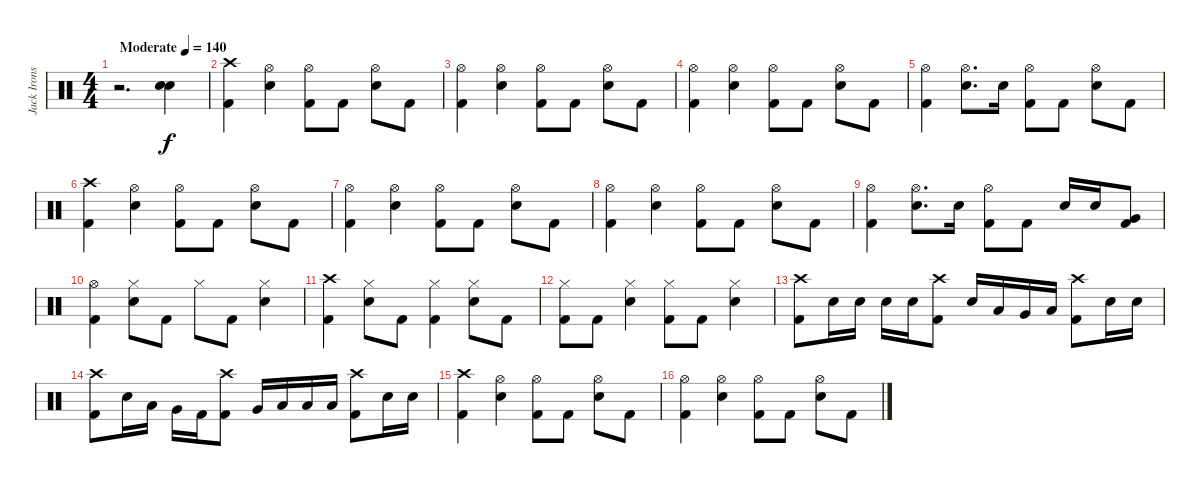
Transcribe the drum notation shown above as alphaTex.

\track ("Jack Irons" "Jack Irons") {instrument percussion}
\staff {score}
\articulation defaults
\ts (4 4)
\tempo (140 "Moderate")
\clef neutral
\ks c
r.2{d dy f} ("Electric Snare (hit)" "Electric Snare (hit)").4 |
("Crash high (hit)" "Kick (hit) 2").4 ("Hi-Hat (open)" "Electric Snare (hit)").4 ("Hi-Hat (open)" "Kick (hit) 2").8 "Kick (hit) 2".8 ("Hi-Hat (open)" "Electric Snare (hit)").8 "Kick (hit) 2".8 |
("Hi-Hat (open)" "Kick (hit) 2").4 ("Hi-Hat (open)" "Electric Snare (hit)").4 ("Hi-Hat (open)" "Kick (hit) 2").8 "Kick (hit) 2".8 ("Hi-Hat (open)" "Electric Snare (hit)").8 "Kick (hit) 2".8 |
("Hi-Hat (open)" "Kick (hit) 2").4 ("Hi-Hat (open)" "Electric Snare (hit)").4 ("Hi-Hat (open)" "Kick (hit) 2").8 "Kick (hit) 2".8 ("Hi-Hat (open)" "Electric Snare (hit)").8 "Kick (hit) 2".8 |
("Hi-Hat (open)" "Kick (hit) 2").4 ("Hi-Hat (open)" "Electric Snare (hit)").8{d} "Electric Snare (hit)".16 ("Hi-Hat (open)" "Kick (hit) 2").8 "Kick (hit) 2".8 ("Hi-Hat (open)" "Electric Snare (hit)").8 "Kick (hit) 2".8 |
("Crash high (hit)" "Kick (hit) 2").4 ("Hi-Hat (open)" "Electric Snare (hit)").4 ("Hi-Hat (open)" "Kick (hit) 2").8 "Kick (hit) 2".8 ("Hi-Hat (open)" "Electric Snare (hit)").8 "Kick (hit) 2".8 |
("Hi-Hat (open)" "Kick (hit) 2").4 ("Hi-Hat (open)" "Electric Snare (hit)").4 ("Hi-Hat (open)" "Kick (hit) 2").8 "Kick (hit) 2".8 ("Hi-Hat (open)" "Electric Snare (hit)").8 "Kick (hit) 2".8 |
("Hi-Hat (open)" "Kick (hit) 2").4 ("Hi-Hat (open)" "Electric Snare (hit)").4 ("Hi-Hat (open)" "Kick (hit) 2").8 "Kick (hit) 2".8 ("Hi-Hat (open)" "Electric Snare (hit)").8 "Kick (hit) 2".8 |
("Hi-Hat (open)" "Kick (hit) 2").4 ("Hi-Hat (open)" "Electric Snare (hit)").8{d} "Electric Snare (hit)".16 ("Hi-Hat (open)" "Kick (hit) 2").8 "Kick (hit) 2".8 "Electric Snare (hit)".16 "Electric Snare (hit)".16 ("Very Low Tom (hit)" "Kick (hit) 2").8 |
("Hi-Hat (open)" "Kick (hit) 2").4 ("Hi-Hat (closed)" "Electric Snare (hit)").8 "Kick (hit) 2".8 "Hi-Hat (closed)".8 "Kick (hit) 2".8 ("Hi-Hat (closed)" "Electric Snare (hit)").4 |
("Crash high (hit)" "Kick (hit) 2").4 ("Hi-Hat (closed)" "Electric Snare (hit)").8 "Kick (hit) 2".8 ("Hi-Hat (closed)" "Kick (hit) 2").4 ("Hi-Hat (closed)" "Electric Snare (hit)").8 "Kick (hit) 2".8 |
("Hi-Hat (closed)" "Kick (hit) 2").8 "Kick (hit) 2".8 ("Hi-Hat (closed)" "Electric Snare (hit)").4 ("Hi-Hat (closed)" "Kick (hit) 2").8 "Kick (hit) 2".8 ("Hi-Hat (closed)" "Electric Snare (hit)").4 |
("Crash high (hit)" "Kick (hit) 2").8 "Electric Snare (hit)".16 "Electric Snare (hit)".16 "Electric Snare (hit)".16 "Electric Snare (hit)".16 ("Crash high (hit)" "Kick (hit) 2").8 "Electric Snare (hit)".16 "Low Tom (hit)".16 "Very Low Tom (hit)".16 "Low Floor Tom (hit)".16 ("Crash high (hit)" "Kick (hit) 2").8 "Electric Snare (hit)".16 "Electric Snare (hit)".16 |
("Crash high (hit)" "Kick (hit) 2").8 "Electric Snare (hit)".16 "Low Tom (hit)".16 "Very Low Tom (hit)".16 "Kick (hit) 2".16 ("Crash high (hit)" "Kick (hit) 2").8 "Very Low Tom (hit)".16 "Low Floor Tom (hit)".16 "Low Floor Tom (hit)".16 "Low Floor Tom (hit)".16 ("Crash high (hit)" "Kick (hit) 2").8 "Electric Snare (hit)".16 "Electric Snare (hit)".16 |
("Crash high (hit)" "Kick (hit) 2").4 ("Hi-Hat (open)" "Electric Snare (hit)").4 ("Hi-Hat (open)" "Kick (hit) 2").8 "Kick (hit) 2".8 ("Hi-Hat (open)" "Electric Snare (hit)").8 "Kick (hit) 2".8 |
("Hi-Hat (open)" "Kick (hit) 2").4 ("Hi-Hat (open)" "Electric Snare (hit)").4 ("Hi-Hat (open)" "Kick (hit) 2").8 "Kick (hit) 2".8 ("Hi-Hat (open)" "Electric Snare (hit)").8 "Kick (hit) 2".8
